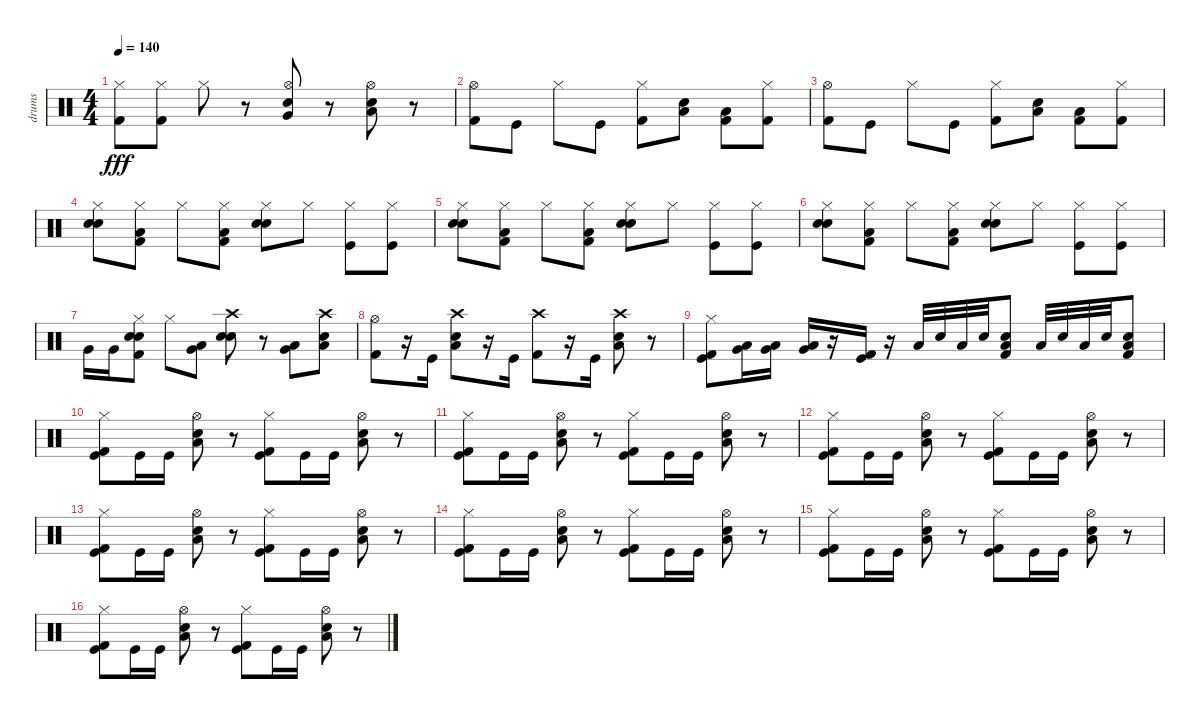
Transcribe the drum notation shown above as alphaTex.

\track ("drums" "drums") {instrument percussion}
\staff {score}
\articulation defaults
\ts (4 4)
\tempo 140
\clef neutral
\ks c
("Hi-Hat (closed)" "Kick (hit) 2").8{dy fff} ("Hi-Hat (closed)" "Kick (hit) 2").8 "Hi-Hat (closed)".8 r.8 ("Very Low Tom (hit)" "Hi-Hat (open)" "Snare (hit) 2").8 r.8 ("Low Tom (hit)" "Snare (hit) 2" "Hi-Hat (open)").8 r.8 |
("Hi-Hat (open)" "Kick (hit) 2").8 "Kick (hit)".8 "Hi-Hat (closed)".8 "Kick (hit)".8 ("Kick (hit) 2" "Hi-Hat (closed)").8 ("Snare (hit) 2" "Low Tom (hit)").8 ("Low Floor Tom (hit)" "Kick (hit) 2").8 ("Kick (hit) 2" "Hi-Hat (closed)").8 |
("Hi-Hat (open)" "Kick (hit) 2").8 "Kick (hit)".8 "Hi-Hat (closed)".8 "Kick (hit)".8 ("Kick (hit) 2" "Hi-Hat (closed)").8 ("Snare (hit) 2" "Low Tom (hit)").8 ("Low Floor Tom (hit)" "Kick (hit) 2").8 ("Kick (hit) 2" "Hi-Hat (closed)").8 |
("Electric Snare (hit)" "Snare (hit) 2" "Hi-Hat (closed)").8 ("Hi-Hat (closed)" "Low Floor Tom (hit)" "Kick (hit) 2").8 "Hi-Hat (closed)".8 ("Hi-Hat (closed)" "Low Floor Tom (hit)" "Kick (hit) 2").8 ("Hi-Hat (closed)" "Electric Snare (hit)" "Snare (hit) 2").8 "Hi-Hat (closed)".8 ("Hi-Hat (closed)" "Kick (hit)").8 ("Hi-Hat (closed)" "Kick (hit)").8 |
("Electric Snare (hit)" "Snare (hit) 2" "Hi-Hat (closed)").8 ("Hi-Hat (closed)" "Low Floor Tom (hit)" "Kick (hit) 2").8 "Hi-Hat (closed)".8 ("Hi-Hat (closed)" "Low Floor Tom (hit)" "Kick (hit) 2").8 ("Hi-Hat (closed)" "Electric Snare (hit)" "Snare (hit) 2").8 "Hi-Hat (closed)".8 ("Hi-Hat (closed)" "Kick (hit)").8 ("Hi-Hat (closed)" "Kick (hit)").8 |
("Electric Snare (hit)" "Snare (hit) 2" "Hi-Hat (closed)").8 ("Hi-Hat (closed)" "Low Floor Tom (hit)" "Kick (hit) 2").8 "Hi-Hat (closed)".8 ("Hi-Hat (closed)" "Low Floor Tom (hit)" "Kick (hit) 2").8 ("Hi-Hat (closed)" "Electric Snare (hit)" "Snare (hit) 2").8 "Hi-Hat (closed)".8 ("Hi-Hat (closed)" "Kick (hit)").8 ("Hi-Hat (closed)" "Kick (hit)").8 |
"Very Low Tom (hit)".16 "Very Low Tom (hit)".16 ("Hi-Hat (closed)" "Kick (hit) 2" "Electric Snare (hit)" "Snare (hit) 2").8 "Hi-Hat (closed)".8 ("Low Tom (hit)" "Very Low Tom (hit)").8 ("Crash high (hit)" "Snare (hit) 2" "Electric Snare (hit)").8 r.8 ("Very Low Tom (hit)" "Low Tom (hit)").8 ("Crash high (hit)" "Low Tom (hit)" "Snare (hit) 2").8 |
("Kick (hit) 2" "Hi-Hat (open)").8 r.16 "Kick (hit)".16 ("Low Tom (hit)" "Snare (hit) 2" "Crash high (hit)").8 r.16 "Kick (hit)".16 ("Kick (hit) 2" "Crash high (hit)").8 r.16 "Kick (hit)".16 ("Low Tom (hit)" "Snare (hit) 2" "Crash high (hit)").8 r.8 |
("Hi-Hat (closed)" "Kick (hit)" "Kick (hit) 2").8 ("Low Tom (hit)" "Very Low Tom (hit)").16 ("Very Low Tom (hit)" "Low Floor Tom (hit)").16 ("Very Low Tom (hit)" "Low Floor Tom (hit)").16 r.16 ("Kick (hit)" "Kick (hit) 2").16 r.16 "Low Tom (hit)".32 "Snare (hit) 2".32 "Low Tom (hit)".32 "Snare (hit) 2".32 ("Kick (hit) 2" "Low Tom (hit)" "Snare (hit) 2").8 "Low Tom (hit)".32 "Snare (hit) 2".32 "Low Tom (hit)".32 "Snare (hit) 2".32 ("Low Tom (hit)" "Kick (hit) 2" "Snare (hit) 2").8 |
("Hi-Hat (closed)" "Kick (hit)" "Kick (hit) 2").8 "Kick (hit)".16 "Kick (hit)".16 ("Hi-Hat (open)" "Low Tom (hit)" "Snare (hit) 2").8 r.8 ("Hi-Hat (closed)" "Kick (hit)" "Kick (hit) 2").8 "Kick (hit)".16 "Kick (hit)".16 ("Hi-Hat (open)" "Low Tom (hit)" "Snare (hit) 2").8 r.8 |
("Hi-Hat (closed)" "Kick (hit)" "Kick (hit) 2").8 "Kick (hit)".16 "Kick (hit)".16 ("Hi-Hat (open)" "Low Tom (hit)" "Snare (hit) 2").8 r.8 ("Hi-Hat (closed)" "Kick (hit)" "Kick (hit) 2").8 "Kick (hit)".16 "Kick (hit)".16 ("Hi-Hat (open)" "Low Tom (hit)" "Snare (hit) 2").8 r.8 |
("Hi-Hat (closed)" "Kick (hit)" "Kick (hit) 2").8 "Kick (hit)".16 "Kick (hit)".16 ("Hi-Hat (open)" "Low Tom (hit)" "Snare (hit) 2").8 r.8 ("Hi-Hat (closed)" "Kick (hit)" "Kick (hit) 2").8 "Kick (hit)".16 "Kick (hit)".16 ("Hi-Hat (open)" "Low Tom (hit)" "Snare (hit) 2").8 r.8 |
("Hi-Hat (closed)" "Kick (hit)" "Kick (hit) 2").8 "Kick (hit)".16 "Kick (hit)".16 ("Hi-Hat (open)" "Low Tom (hit)" "Snare (hit) 2").8 r.8 ("Hi-Hat (closed)" "Kick (hit)" "Kick (hit) 2").8 "Kick (hit)".16 "Kick (hit)".16 ("Hi-Hat (open)" "Low Tom (hit)" "Snare (hit) 2").8 r.8 |
("Hi-Hat (closed)" "Kick (hit)" "Kick (hit) 2").8 "Kick (hit)".16 "Kick (hit)".16 ("Hi-Hat (open)" "Low Tom (hit)" "Snare (hit) 2").8 r.8 ("Hi-Hat (closed)" "Kick (hit)" "Kick (hit) 2").8 "Kick (hit)".16 "Kick (hit)".16 ("Hi-Hat (open)" "Low Tom (hit)" "Snare (hit) 2").8 r.8 |
("Hi-Hat (closed)" "Kick (hit)" "Kick (hit) 2").8 "Kick (hit)".16 "Kick (hit)".16 ("Hi-Hat (open)" "Low Tom (hit)" "Snare (hit) 2").8 r.8 ("Hi-Hat (closed)" "Kick (hit)" "Kick (hit) 2").8 "Kick (hit)".16 "Kick (hit)".16 ("Hi-Hat (open)" "Low Tom (hit)" "Snare (hit) 2").8 r.8 |
("Hi-Hat (closed)" "Kick (hit)" "Kick (hit) 2").8 "Kick (hit)".16 "Kick (hit)".16 ("Hi-Hat (open)" "Low Tom (hit)" "Snare (hit) 2").8 r.8 ("Hi-Hat (closed)" "Kick (hit)" "Kick (hit) 2").8 "Kick (hit)".16 "Kick (hit)".16 ("Hi-Hat (open)" "Low Tom (hit)" "Snare (hit) 2").8 r.8
